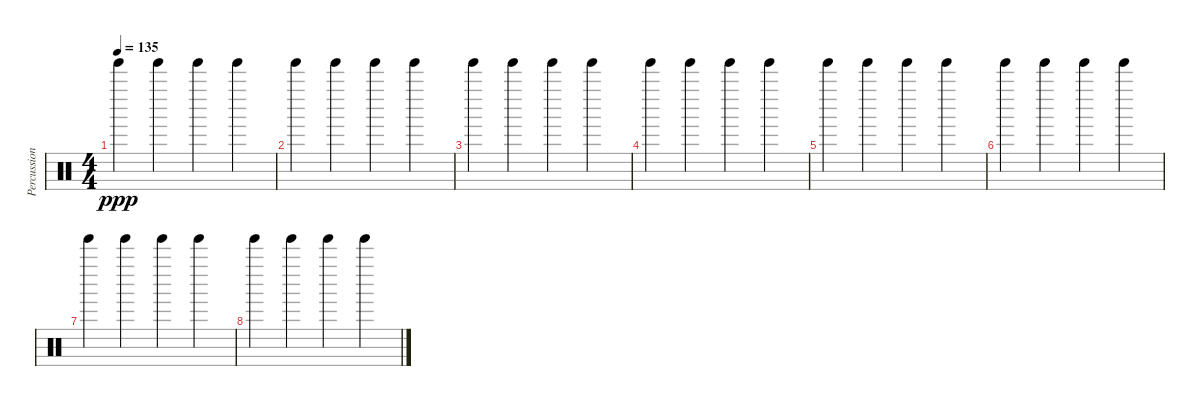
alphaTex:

\track ("Percussion" "Percussion") {instrument percussion}
\staff {score}
\articulation defaults
\ts (4 4)
\tempo 135
\clef neutral
\ks c "Tinkle Bell (hit)".4{dy ppp} "Tinkle Bell (hit)".4 "Tinkle Bell (hit)".4 "Tinkle Bell (hit)".4
|
"Tinkle Bell (hit)".4 "Tinkle Bell (hit)".4 "Tinkle Bell (hit)".4 "Tinkle Bell (hit)".4 |
"Tinkle Bell (hit)".4 "Tinkle Bell (hit)".4 "Tinkle Bell (hit)".4 "Tinkle Bell (hit)".4 |
"Tinkle Bell (hit)".4 "Tinkle Bell (hit)".4 "Tinkle Bell (hit)".4 "Tinkle Bell (hit)".4 |
"Tinkle Bell (hit)".4 "Tinkle Bell (hit)".4 "Tinkle Bell (hit)".4 "Tinkle Bell (hit)".4 |
"Tinkle Bell (hit)".4 "Tinkle Bell (hit)".4 "Tinkle Bell (hit)".4 "Tinkle Bell (hit)".4 |
"Tinkle Bell (hit)".4 "Tinkle Bell (hit)".4 "Tinkle Bell (hit)".4 "Tinkle Bell (hit)".4 |
"Tinkle Bell (hit)".4 "Tinkle Bell (hit)".4 "Tinkle Bell (hit)".4 "Tinkle Bell (hit)".4
